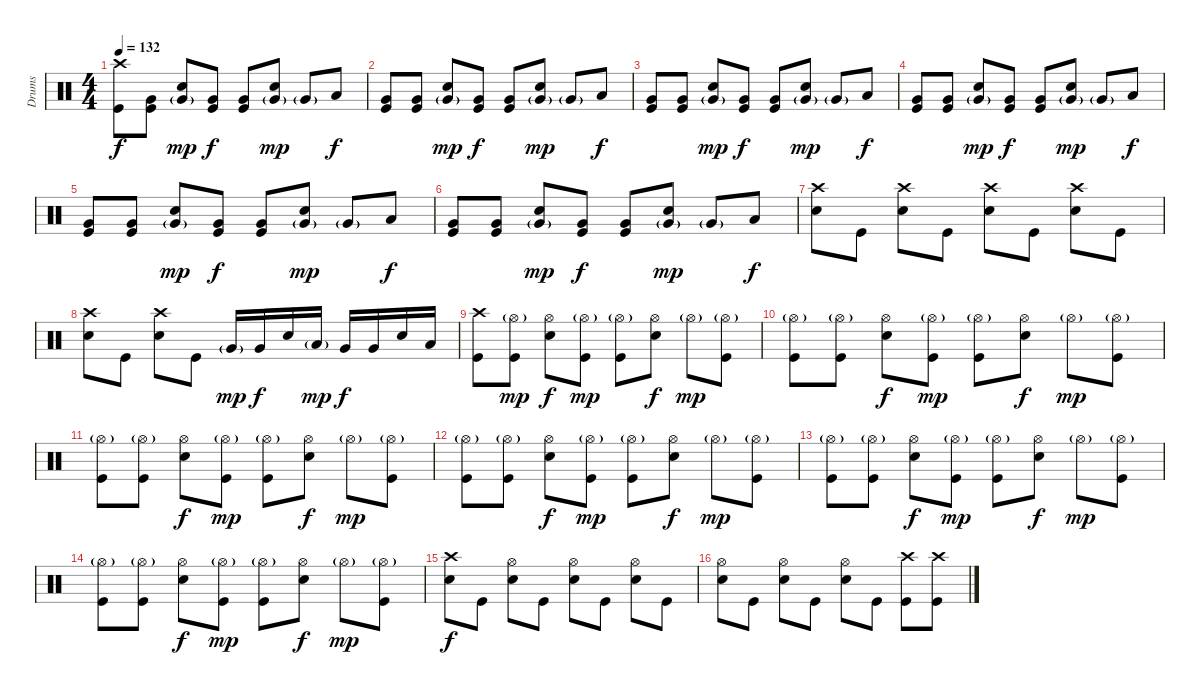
\track ("Drums" "Drums") {instrument percussion}
\staff {score}
\articulation defaults
\ts (4 4)
\tempo 132
\clef neutral
\ks c
("Crash high (hit)" "Kick (hit)").8{dy f} ("Very Low Tom (hit)" "Kick (hit)").8 ("Very Low Tom (hit)"{g} "Snare (hit) 2").8{dy mp} ("Very Low Tom (hit)" "Kick (hit)").8{dy f} ("Very Low Tom (hit)" "Kick (hit)").8 ("Very Low Tom (hit)"{g} "Snare (hit) 2").8{dy mp} "Very Low Tom (hit)"{g}.8 "Low Tom (hit)".8{dy f} |
("Very Low Tom (hit)" "Kick (hit)").8 ("Very Low Tom (hit)" "Kick (hit)").8 ("Very Low Tom (hit)"{g} "Snare (hit) 2").8{dy mp} ("Very Low Tom (hit)" "Kick (hit)").8{dy f} ("Very Low Tom (hit)" "Kick (hit)").8 ("Very Low Tom (hit)"{g} "Snare (hit) 2").8{dy mp} "Very Low Tom (hit)"{g}.8 "Low Tom (hit)".8{dy f} |
("Very Low Tom (hit)" "Kick (hit)").8 ("Very Low Tom (hit)" "Kick (hit)").8 ("Very Low Tom (hit)"{g} "Snare (hit) 2").8{dy mp} ("Very Low Tom (hit)" "Kick (hit)").8{dy f} ("Very Low Tom (hit)" "Kick (hit)").8 ("Very Low Tom (hit)"{g} "Snare (hit) 2").8{dy mp} "Very Low Tom (hit)"{g}.8 "Low Tom (hit)".8{dy f} |
("Very Low Tom (hit)" "Kick (hit)").8 ("Very Low Tom (hit)" "Kick (hit)").8 ("Very Low Tom (hit)"{g} "Snare (hit) 2").8{dy mp} ("Very Low Tom (hit)" "Kick (hit)").8{dy f} ("Very Low Tom (hit)" "Kick (hit)").8 ("Very Low Tom (hit)"{g} "Snare (hit) 2").8{dy mp} "Very Low Tom (hit)"{g}.8 "Low Tom (hit)".8{dy f} |
("Very Low Tom (hit)" "Kick (hit)").8 ("Very Low Tom (hit)" "Kick (hit)").8 ("Very Low Tom (hit)"{g} "Snare (hit) 2").8{dy mp} ("Very Low Tom (hit)" "Kick (hit)").8{dy f} ("Very Low Tom (hit)" "Kick (hit)").8 ("Very Low Tom (hit)"{g} "Snare (hit) 2").8{dy mp} "Very Low Tom (hit)"{g}.8 "Low Tom (hit)".8{dy f} |
("Very Low Tom (hit)" "Kick (hit)").8 ("Very Low Tom (hit)" "Kick (hit)").8 ("Very Low Tom (hit)"{g} "Snare (hit) 2").8{dy mp} ("Very Low Tom (hit)" "Kick (hit)").8{dy f} ("Very Low Tom (hit)" "Kick (hit)").8 ("Very Low Tom (hit)"{g} "Snare (hit) 2").8{dy mp} "Very Low Tom (hit)"{g}.8 "Low Tom (hit)".8{dy f} |
("Crash high (hit)" "Snare (hit) 2").8 "Kick (hit)".8 ("Crash high (hit)" "Snare (hit) 2").8 "Kick (hit)".8 ("Crash high (hit)" "Snare (hit) 2").8 "Kick (hit)".8 ("Crash high (hit)" "Snare (hit) 2").8 "Kick (hit)".8 |
("Crash high (hit)" "Snare (hit) 2").8 "Kick (hit)".8 ("Crash high (hit)" "Snare (hit) 2").8 "Kick (hit)".8 "Very Low Tom (hit)"{g}.16{dy mp} "Very Low Tom (hit)".16{dy f} "Snare (hit) 2".16 "Low Tom (hit)"{g}.16{dy mp} "Very Low Tom (hit)".16{dy f} "Very Low Tom (hit)".16 "Snare (hit) 2".16 "Low Tom (hit)".16 |
("Crash high (hit)" "Kick (hit)").8 ("Hi-Hat (open)"{g} "Kick (hit)").8{dy mp} ("Hi-Hat (open)" "Snare (hit) 2").8{dy f} ("Hi-Hat (open)"{g} "Kick (hit)").8{dy mp} ("Hi-Hat (open)"{g} "Kick (hit)").8 ("Hi-Hat (open)" "Snare (hit) 2").8{dy f} "Hi-Hat (open)"{g}.8{dy mp} ("Hi-Hat (open)"{g} "Kick (hit)").8 |
("Hi-Hat (open)"{g} "Kick (hit)").8 ("Hi-Hat (open)"{g} "Kick (hit)").8 ("Hi-Hat (open)" "Snare (hit) 2").8{dy f} ("Hi-Hat (open)"{g} "Kick (hit)").8{dy mp} ("Hi-Hat (open)"{g} "Kick (hit)").8 ("Hi-Hat (open)" "Snare (hit) 2").8{dy f} "Hi-Hat (open)"{g}.8{dy mp} ("Hi-Hat (open)"{g} "Kick (hit)").8 |
("Hi-Hat (open)"{g} "Kick (hit)").8 ("Hi-Hat (open)"{g} "Kick (hit)").8 ("Hi-Hat (open)" "Snare (hit) 2").8{dy f} ("Hi-Hat (open)"{g} "Kick (hit)").8{dy mp} ("Hi-Hat (open)"{g} "Kick (hit)").8 ("Hi-Hat (open)" "Snare (hit) 2").8{dy f} "Hi-Hat (open)"{g}.8{dy mp} ("Hi-Hat (open)"{g} "Kick (hit)").8 |
("Hi-Hat (open)"{g} "Kick (hit)").8 ("Hi-Hat (open)"{g} "Kick (hit)").8 ("Hi-Hat (open)" "Snare (hit) 2").8{dy f} ("Hi-Hat (open)"{g} "Kick (hit)").8{dy mp} ("Hi-Hat (open)"{g} "Kick (hit)").8 ("Hi-Hat (open)" "Snare (hit) 2").8{dy f} "Hi-Hat (open)"{g}.8{dy mp} ("Hi-Hat (open)"{g} "Kick (hit)").8 |
("Hi-Hat (open)"{g} "Kick (hit)").8 ("Hi-Hat (open)"{g} "Kick (hit)").8 ("Hi-Hat (open)" "Snare (hit) 2").8{dy f} ("Hi-Hat (open)"{g} "Kick (hit)").8{dy mp} ("Hi-Hat (open)"{g} "Kick (hit)").8 ("Hi-Hat (open)" "Snare (hit) 2").8{dy f} "Hi-Hat (open)"{g}.8{dy mp} ("Hi-Hat (open)"{g} "Kick (hit)").8 |
("Hi-Hat (open)"{g} "Kick (hit)").8 ("Hi-Hat (open)"{g} "Kick (hit)").8 ("Hi-Hat (open)" "Snare (hit) 2").8{dy f} ("Hi-Hat (open)"{g} "Kick (hit)").8{dy mp} ("Hi-Hat (open)"{g} "Kick (hit)").8 ("Hi-Hat (open)" "Snare (hit) 2").8{dy f} "Hi-Hat (open)"{g}.8{dy mp} ("Hi-Hat (open)"{g} "Kick (hit)").8 |
("Crash high (hit)" "Snare (hit) 2").8{dy f} "Kick (hit)".8 ("Hi-Hat (open)" "Snare (hit) 2").8 "Kick (hit)".8 ("Hi-Hat (open)" "Snare (hit) 2").8 "Kick (hit)".8 ("Hi-Hat (open)" "Snare (hit) 2").8 "Kick (hit)".8 |
("Hi-Hat (open)" "Snare (hit) 2").8 "Kick (hit)".8 ("Hi-Hat (open)" "Snare (hit) 2").8 "Kick (hit)".8 ("Hi-Hat (open)" "Snare (hit) 2").8 "Kick (hit)".8 ("Crash high (hit)" "Kick (hit)").8 ("Crash high (hit)" "Kick (hit)").8
